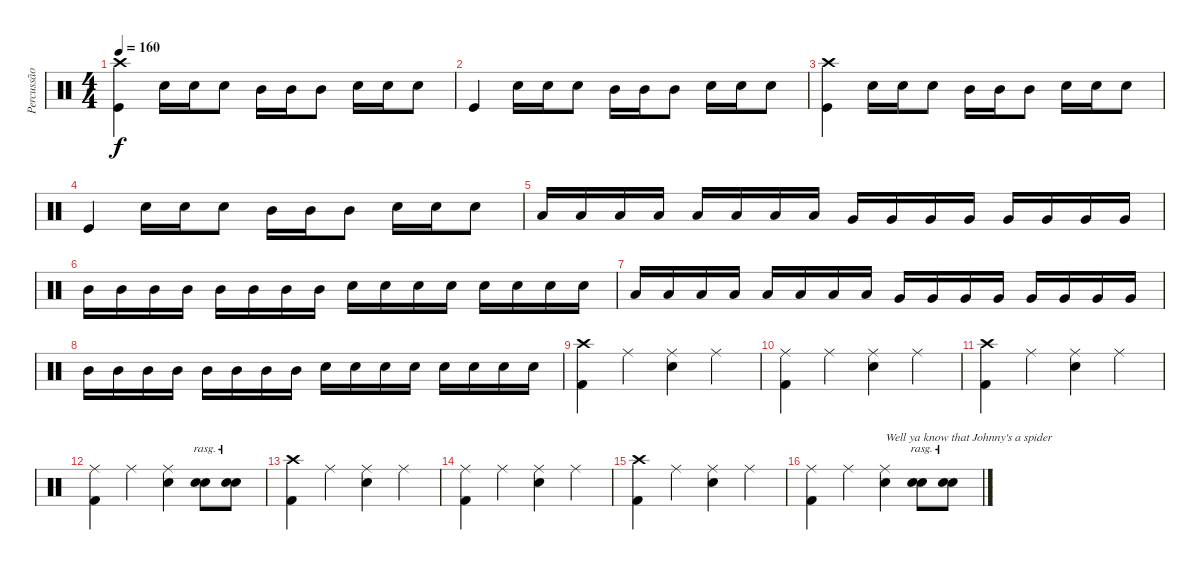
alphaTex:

\track ("Percussão" "Percussão") {instrument percussion}
\staff {score}
\articulation defaults
\ts (4 4)
\tempo 160
\clef neutral
\ks c
("Crash high (hit)" "Kick (hit)").4{dy f} "Snare (hit) 2".16 "Snare (hit) 2".16 "Snare (hit) 2".8 "Mid Tom (hit)".16 "Mid Tom (hit)".16 "Mid Tom (hit)".8 "Snare (hit) 2".16 "Snare (hit) 2".16 "Snare (hit) 2".8 |
"Kick (hit)".4 "Snare (hit) 2".16 "Snare (hit) 2".16 "Snare (hit) 2".8 "Mid Tom (hit)".16 "Mid Tom (hit)".16 "Mid Tom (hit)".8 "Snare (hit) 2".16 "Snare (hit) 2".16 "Snare (hit) 2".8 |
("Crash high (hit)" "Kick (hit)").4 "Snare (hit) 2".16 "Snare (hit) 2".16 "Snare (hit) 2".8 "Mid Tom (hit)".16 "Mid Tom (hit)".16 "Mid Tom (hit)".8 "Snare (hit) 2".16 "Snare (hit) 2".16 "Snare (hit) 2".8 |
"Kick (hit)".4 "Snare (hit) 2".16 "Snare (hit) 2".16 "Snare (hit) 2".8 "Mid Tom (hit)".16 "Mid Tom (hit)".16 "Mid Tom (hit)".8 "Snare (hit) 2".16 "Snare (hit) 2".16 "Snare (hit) 2".8 |
"Low Floor Tom (hit)".16 "Low Floor Tom (hit)".16 "Low Floor Tom (hit)".16 "Low Floor Tom (hit)".16 "Low Floor Tom (hit)".16 "Low Floor Tom (hit)".16 "Low Floor Tom (hit)".16 "Low Floor Tom (hit)".16 "Very Low Tom (hit)".16 "Very Low Tom (hit)".16 "Very Low Tom (hit)".16 "Very Low Tom (hit)".16 "Very Low Tom (hit)".16 "Very Low Tom (hit)".16 "Very Low Tom (hit)".16 "Very Low Tom (hit)".16 |
"Mid Tom (hit)".16 "Mid Tom (hit)".16 "Mid Tom (hit)".16 "Mid Tom (hit)".16 "Mid Tom (hit)".16 "Mid Tom (hit)".16 "Mid Tom (hit)".16 "Mid Tom (hit)".16 "Snare (hit) 2".16 "Snare (hit) 2".16 "Snare (hit) 2".16 "Snare (hit) 2".16 "Snare (hit) 2".16 "Snare (hit) 2".16 "Snare (hit) 2".16 "Snare (hit) 2".16 |
"Low Floor Tom (hit)".16 "Low Floor Tom (hit)".16 "Low Floor Tom (hit)".16 "Low Floor Tom (hit)".16 "Low Floor Tom (hit)".16 "Low Floor Tom (hit)".16 "Low Floor Tom (hit)".16 "Low Floor Tom (hit)".16 "Very Low Tom (hit)".16 "Very Low Tom (hit)".16 "Very Low Tom (hit)".16 "Very Low Tom (hit)".16 "Very Low Tom (hit)".16 "Very Low Tom (hit)".16 "Very Low Tom (hit)".16 "Very Low Tom (hit)".16 |
"Mid Tom (hit)".16 "Mid Tom (hit)".16 "Mid Tom (hit)".16 "Mid Tom (hit)".16 "Mid Tom (hit)".16 "Mid Tom (hit)".16 "Mid Tom (hit)".16 "Mid Tom (hit)".16 "Snare (hit) 2".16 "Snare (hit) 2".16 "Snare (hit) 2".16 "Snare (hit) 2".16 "Snare (hit) 2".16 "Snare (hit) 2".16 "Snare (hit) 2".16 "Snare (hit) 2".16 |
("Crash high (hit)" "Kick (hit) 2").4 "Ride (middle)".4 ("Ride (middle)" "Snare (hit) 2").4 "Ride (middle)".4 |
("Ride (middle)" "Kick (hit) 2").4 "Ride (middle)".4 ("Ride (middle)" "Snare (hit) 2").4 "Ride (middle)".4 |
("Crash high (hit)" "Kick (hit) 2").4 "Ride (middle)".4 ("Ride (middle)" "Snare (hit) 2").4 "Ride (middle)".4 |
("Ride (middle)" "Kick (hit) 2").4 "Ride (middle)".4 ("Ride (middle)" "Snare (hit) 2").4 ("Snare (hit) 2" "Snare (hit) 2").8{bu 240 rasg ii} ("Snare (hit) 2" "Snare (hit) 2").8{bu 240 rasg ii} |
("Crash high (hit)" "Kick (hit) 2").4 "Ride (middle)".4 ("Ride (middle)" "Snare (hit) 2").4 "Ride (middle)".4 |
("Ride (middle)" "Kick (hit) 2").4 "Ride (middle)".4 ("Ride (middle)" "Snare (hit) 2").4 "Ride (middle)".4 |
("Crash high (hit)" "Kick (hit) 2").4 "Ride (middle)".4 ("Ride (middle)" "Snare (hit) 2").4 "Ride (middle)".4 |
("Ride (middle)" "Kick (hit) 2").4 "Ride (middle)".4 ("Ride (middle)" "Snare (hit) 2").4{txt "Well ya know that Johnny's a spider"} ("Snare (hit) 2" "Snare (hit) 2").8{bu 240 rasg ii} ("Snare (hit) 2" "Snare (hit) 2").8{bu 240 rasg ii}
